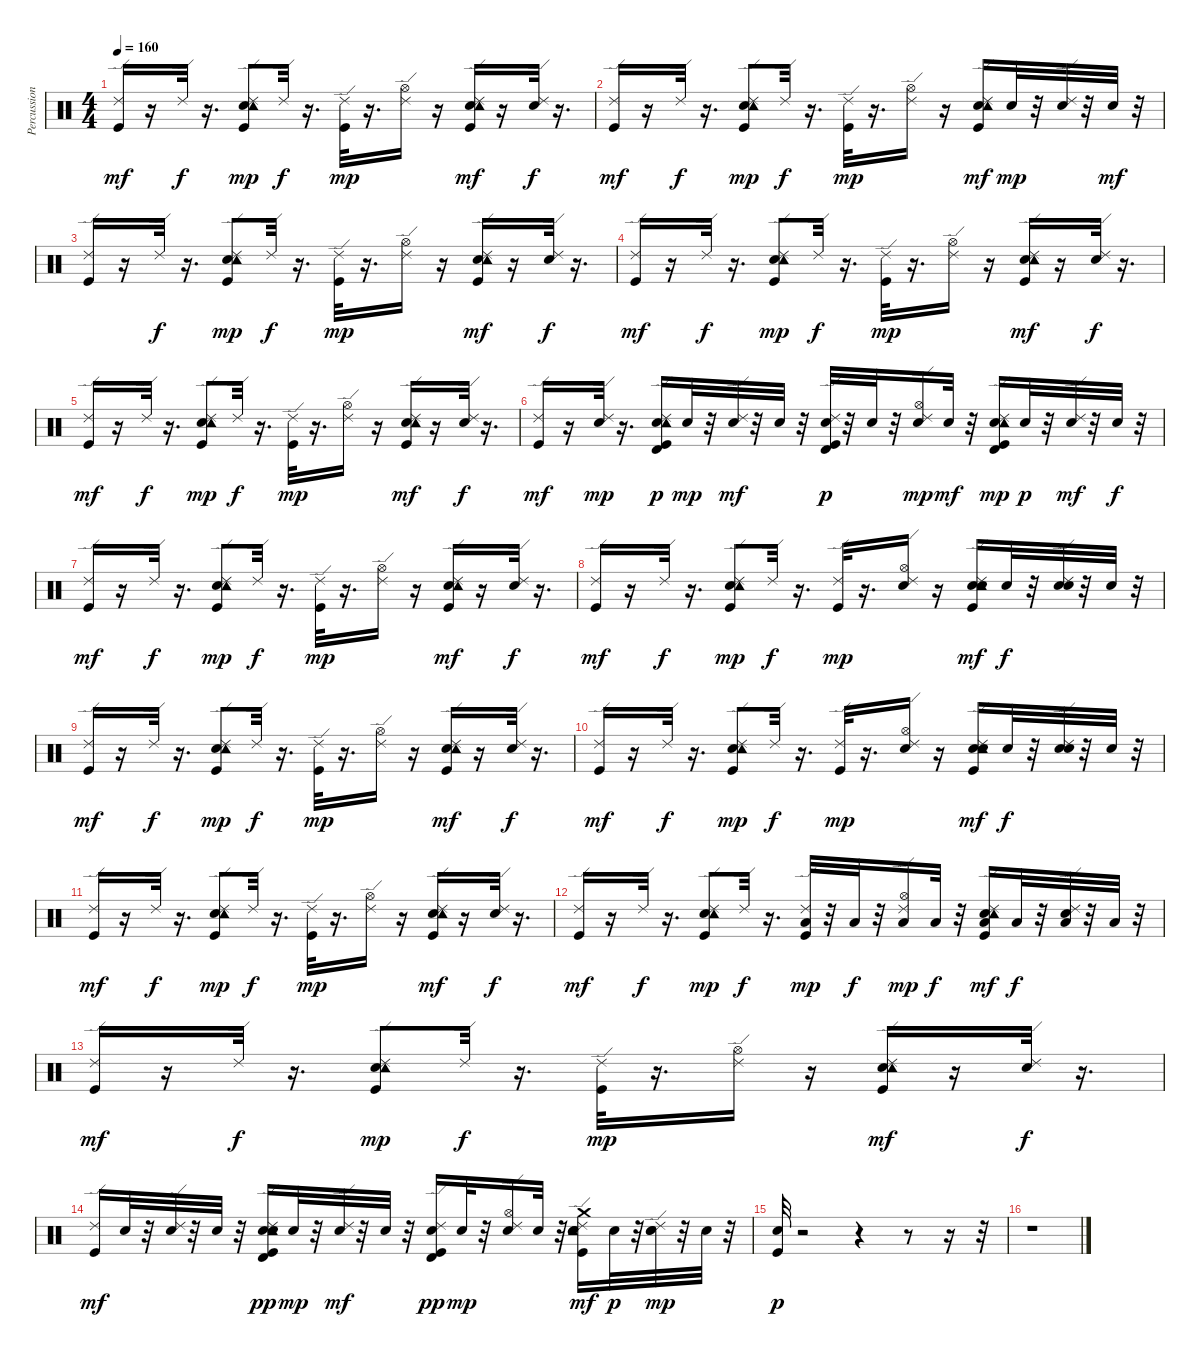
\track ("Percussion" "Percussion") {instrument percussion}
\staff {score}
\articulation defaults
\ts (4 4)
\tempo 160
\clef neutral
\ks c
("Kick (hit)" "Ride (edge) 2").16{dy mf} r.16 "Ride (edge) 2".32{dy f} r.16{d} ("Kick (hit)" "Electric Snare (hit)" "Tambourine (hit)" "Ride (edge) 2").8{dy mp} "Ride (edge) 2".32{dy f} r.16{d} ("Kick (hit)" "Ride (edge) 2").32{dy mp} r.16{d} ("Hi-Hat (open)" "Ride (edge) 2").16 r.16 ("Kick (hit)" "Electric Snare (hit)" "Tambourine (hit)" "Ride (edge) 2").16{dy mf} r.16 ("Electric Snare (hit)" "Ride (edge) 2").32{dy f} r.16{d} |
("Kick (hit)" "Ride (edge) 2").16{dy mf} r.16 "Ride (edge) 2".32{dy f} r.16{d} ("Kick (hit)" "Electric Snare (hit)" "Tambourine (hit)" "Ride (edge) 2").8{dy mp} "Ride (edge) 2".32{dy f} r.16{d} ("Kick (hit)" "Ride (edge) 2").32{dy mp} r.16{d} ("Hi-Hat (open)" "Ride (edge) 2").16 r.16 ("Kick (hit)" "Snare (hit) 2" "Tambourine (hit)" "Ride (edge) 2").16{dy mf} "Snare (hit) 2".32{dy mp} r.32 ("Snare (hit) 2" "Ride (edge) 2").32 r.32 "Snare (hit) 2".32{dy mf} r.32 |
("Kick (hit)" "Ride (edge) 2").16 r.16 "Ride (edge) 2".32{dy f} r.16{d} ("Kick (hit)" "Electric Snare (hit)" "Tambourine (hit)" "Ride (edge) 2").8{dy mp} "Ride (edge) 2".32{dy f} r.16{d} ("Kick (hit)" "Ride (edge) 2").32{dy mp} r.16{d} ("Hi-Hat (open)" "Ride (edge) 2").16 r.16 ("Kick (hit)" "Electric Snare (hit)" "Tambourine (hit)" "Ride (edge) 2").16{dy mf} r.16 ("Electric Snare (hit)" "Ride (edge) 2").32{dy f} r.16{d} |
("Kick (hit)" "Ride (edge) 2").16{dy mf} r.16 "Ride (edge) 2".32{dy f} r.16{d} ("Kick (hit)" "Electric Snare (hit)" "Tambourine (hit)" "Ride (edge) 2").8{dy mp} "Ride (edge) 2".32{dy f} r.16{d} ("Kick (hit)" "Ride (edge) 2").32{dy mp} r.16{d} ("Hi-Hat (open)" "Ride (edge) 2").16 r.16 ("Kick (hit)" "Electric Snare (hit)" "Tambourine (hit)" "Ride (edge) 2").16{dy mf} r.16 ("Electric Snare (hit)" "Ride (edge) 2").32{dy f} r.16{d} |
("Kick (hit)" "Ride (edge) 2").16{dy mf} r.16 "Ride (edge) 2".32{dy f} r.16{d} ("Kick (hit)" "Electric Snare (hit)" "Tambourine (hit)" "Ride (edge) 2").8{dy mp} "Ride (edge) 2".32{dy f} r.16{d} ("Kick (hit)" "Ride (edge) 2").32{dy mp} r.16{d} ("Hi-Hat (open)" "Ride (edge) 2").16 r.16 ("Kick (hit)" "Electric Snare (hit)" "Tambourine (hit)" "Ride (edge) 2").16{dy mf} r.16 ("Electric Snare (hit)" "Ride (edge) 2").32{dy f} r.16{d} |
("Kick (hit)" "Ride (edge) 2").16{dy mf} r.16 ("Snare (hit) 2" "Ride (edge) 2").32{dy mp} r.16{d} ("Kick (hit)" "Snare (hit) 2" "Tambourine (hit)" "Ride (edge) 2" "Timbale high (hit)").16{dy p} "Snare (hit) 2".32{dy mp} r.32 ("Snare (hit) 2" "Ride (edge) 2").32{dy mf} r.32 "Snare (hit) 2".32 r.32 ("Kick (hit)" "Snare (hit) 2" "Ride (edge) 2" "Timbale high (hit)").32{dy p} r.32 "Snare (hit) 2".32 r.32 ("Snare (hit) 2" "Hi-Hat (open)" "Ride (edge) 2").16{dy mp} "Snare (hit) 2".32{dy mf} r.32 ("Kick (hit)" "Snare (hit) 2" "Tambourine (hit)" "Ride (edge) 2" "Timbale high (hit)").16{dy mp} "Snare (hit) 2".32{dy p} r.32 ("Snare (hit) 2" "Ride (edge) 2").32{dy mf} r.32 "Snare (hit) 2".32{dy f} r.32 |
("Kick (hit)" "Ride (edge) 2").16{dy mf} r.16 "Ride (edge) 2".32{dy f} r.16{d} ("Kick (hit)" "Electric Snare (hit)" "Tambourine (hit)" "Ride (edge) 2").8{dy mp} "Ride (edge) 2".32{dy f} r.16{d} ("Kick (hit)" "Ride (edge) 2").32{dy mp} r.16{d} ("Hi-Hat (open)" "Ride (edge) 2").16 r.16 ("Kick (hit)" "Electric Snare (hit)" "Tambourine (hit)" "Ride (edge) 2").16{dy mf} r.16 ("Electric Snare (hit)" "Ride (edge) 2").32{dy f} r.16{d} |
("Kick (hit)" "Ride (edge) 2").16{dy mf} r.16 "Ride (edge) 2".32{dy f} r.16{d} ("Kick (hit)" "Electric Snare (hit)" "Tambourine (hit)" "Ride (edge) 2").8{dy mp} "Ride (edge) 2".32{dy f} r.16{d} ("Kick (hit)" "Ride (edge) 2").32{dy mp} r.16{d} ("Snare (hit) 2" "Hi-Hat (open)" "Ride (edge) 2").16 r.16 ("Kick (hit)" "Snare (hit) 2" "Electric Snare (hit)" "Tambourine (hit)" "Ride (edge) 2").16{dy mf} "Snare (hit) 2".32{dy f} r.32 ("Snare (hit) 2" "Electric Snare (hit)" "Ride (edge) 2").32 r.32 "Snare (hit) 2".32 r.32 |
("Kick (hit)" "Ride (edge) 2").16{dy mf} r.16 "Ride (edge) 2".32{dy f} r.16{d} ("Kick (hit)" "Electric Snare (hit)" "Tambourine (hit)" "Ride (edge) 2").8{dy mp} "Ride (edge) 2".32{dy f} r.16{d} ("Kick (hit)" "Ride (edge) 2").32{dy mp} r.16{d} ("Hi-Hat (open)" "Ride (edge) 2").16 r.16 ("Kick (hit)" "Electric Snare (hit)" "Tambourine (hit)" "Ride (edge) 2").16{dy mf} r.16 ("Electric Snare (hit)" "Ride (edge) 2").32{dy f} r.16{d} |
("Kick (hit)" "Ride (edge) 2").16{dy mf} r.16 "Ride (edge) 2".32{dy f} r.16{d} ("Kick (hit)" "Electric Snare (hit)" "Tambourine (hit)" "Ride (edge) 2").8{dy mp} "Ride (edge) 2".32{dy f} r.16{d} ("Kick (hit)" "Ride (edge) 2").32{dy mp} r.16{d} ("Snare (hit) 2" "Hi-Hat (open)" "Ride (edge) 2").16 r.16 ("Kick (hit)" "Snare (hit) 2" "Electric Snare (hit)" "Tambourine (hit)" "Ride (edge) 2").16{dy mf} "Snare (hit) 2".32{dy f} r.32 ("Snare (hit) 2" "Electric Snare (hit)" "Ride (edge) 2").32 r.32 "Snare (hit) 2".32 r.32 |
("Kick (hit)" "Ride (edge) 2").16{dy mf} r.16 "Ride (edge) 2".32{dy f} r.16{d} ("Kick (hit)" "Electric Snare (hit)" "Tambourine (hit)" "Ride (edge) 2").8{dy mp} "Ride (edge) 2".32{dy f} r.16{d} ("Kick (hit)" "Ride (edge) 2").32{dy mp} r.16{d} ("Hi-Hat (open)" "Ride (edge) 2").16 r.16 ("Kick (hit)" "Electric Snare (hit)" "Tambourine (hit)" "Ride (edge) 2").16{dy mf} r.16 ("Electric Snare (hit)" "Ride (edge) 2").32{dy f} r.16{d} |
("Kick (hit)" "Ride (edge) 2").16{dy mf} r.16 "Ride (edge) 2".32{dy f} r.16{d} ("Kick (hit)" "Electric Snare (hit)" "Tambourine (hit)" "Ride (edge) 2").8{dy mp} "Ride (edge) 2".32{dy f} r.16{d} ("Kick (hit)" "Low Floor Tom (hit)" "Ride (edge) 2").32{dy mp} r.32 "Low Floor Tom (hit)".32{dy f} r.32 ("Low Floor Tom (hit)" "Hi-Hat (open)" "Ride (edge) 2").16{dy mp} "Low Floor Tom (hit)".32{dy f} r.32 ("Kick (hit)" "Electric Snare (hit)" "Low Tom (hit)" "Tambourine (hit)" "Ride (edge) 2").16{dy mf} "Low Tom (hit)".32{dy f} r.32 ("Electric Snare (hit)" "Low Tom (hit)" "Ride (edge) 2").32 r.32 "Low Tom (hit)".32 r.32 |
("Kick (hit)" "Ride (edge) 2").16{dy mf} r.16 "Ride (edge) 2".32{dy f} r.16{d} ("Kick (hit)" "Electric Snare (hit)" "Tambourine (hit)" "Ride (edge) 2").8{dy mp} "Ride (edge) 2".32{dy f} r.16{d} ("Kick (hit)" "Ride (edge) 2").32{dy mp} r.16{d} ("Hi-Hat (open)" "Ride (edge) 2").16 r.16 ("Kick (hit)" "Electric Snare (hit)" "Tambourine (hit)" "Ride (edge) 2").16{dy mf} r.16 ("Electric Snare (hit)" "Ride (edge) 2").32{dy f} r.16{d} |
("Kick (hit)" "Ride (edge) 2").16{dy mf} "Snare (hit) 2".32 r.32 ("Snare (hit) 2" "Ride (edge) 2").32 r.32 "Snare (hit) 2".32 r.32 ("Kick (hit)" "Snare (hit) 2" "Electric Snare (hit)" "Tambourine (hit)" "Ride (edge) 2" "Timbale high (hit)").16{dy pp} "Snare (hit) 2".32{dy mp} r.32 ("Snare (hit) 2" "Ride (edge) 2").32{dy mf} r.32 "Snare (hit) 2".32 r.32 ("Kick (hit)" "Snare (hit) 2" "Ride (edge) 2" "Timbale high (hit)").16{dy pp} "Snare (hit) 2".32{dy mp} r.32 ("Snare (hit) 2" "Hi-Hat (open)" "Ride (edge) 2").16 "Snare (hit) 2".32 r.32 ("Kick (hit)" "Snare (hit) 2" "Electric Snare (hit)" "Tambourine (hit)" "Crash medium (hit)" "Ride (edge) 2").16{dy mf} "Snare (hit) 2".32{dy p} r.32 ("Snare (hit) 2" "Electric Snare (hit)" "Ride (edge) 2").32{dy mp} r.32 "Snare (hit) 2".32 r.32 |
("Kick (hit)" "Electric Snare (hit)").32{dy p} r.2 r.4 r.8 r.16 r.32 |
r.1
